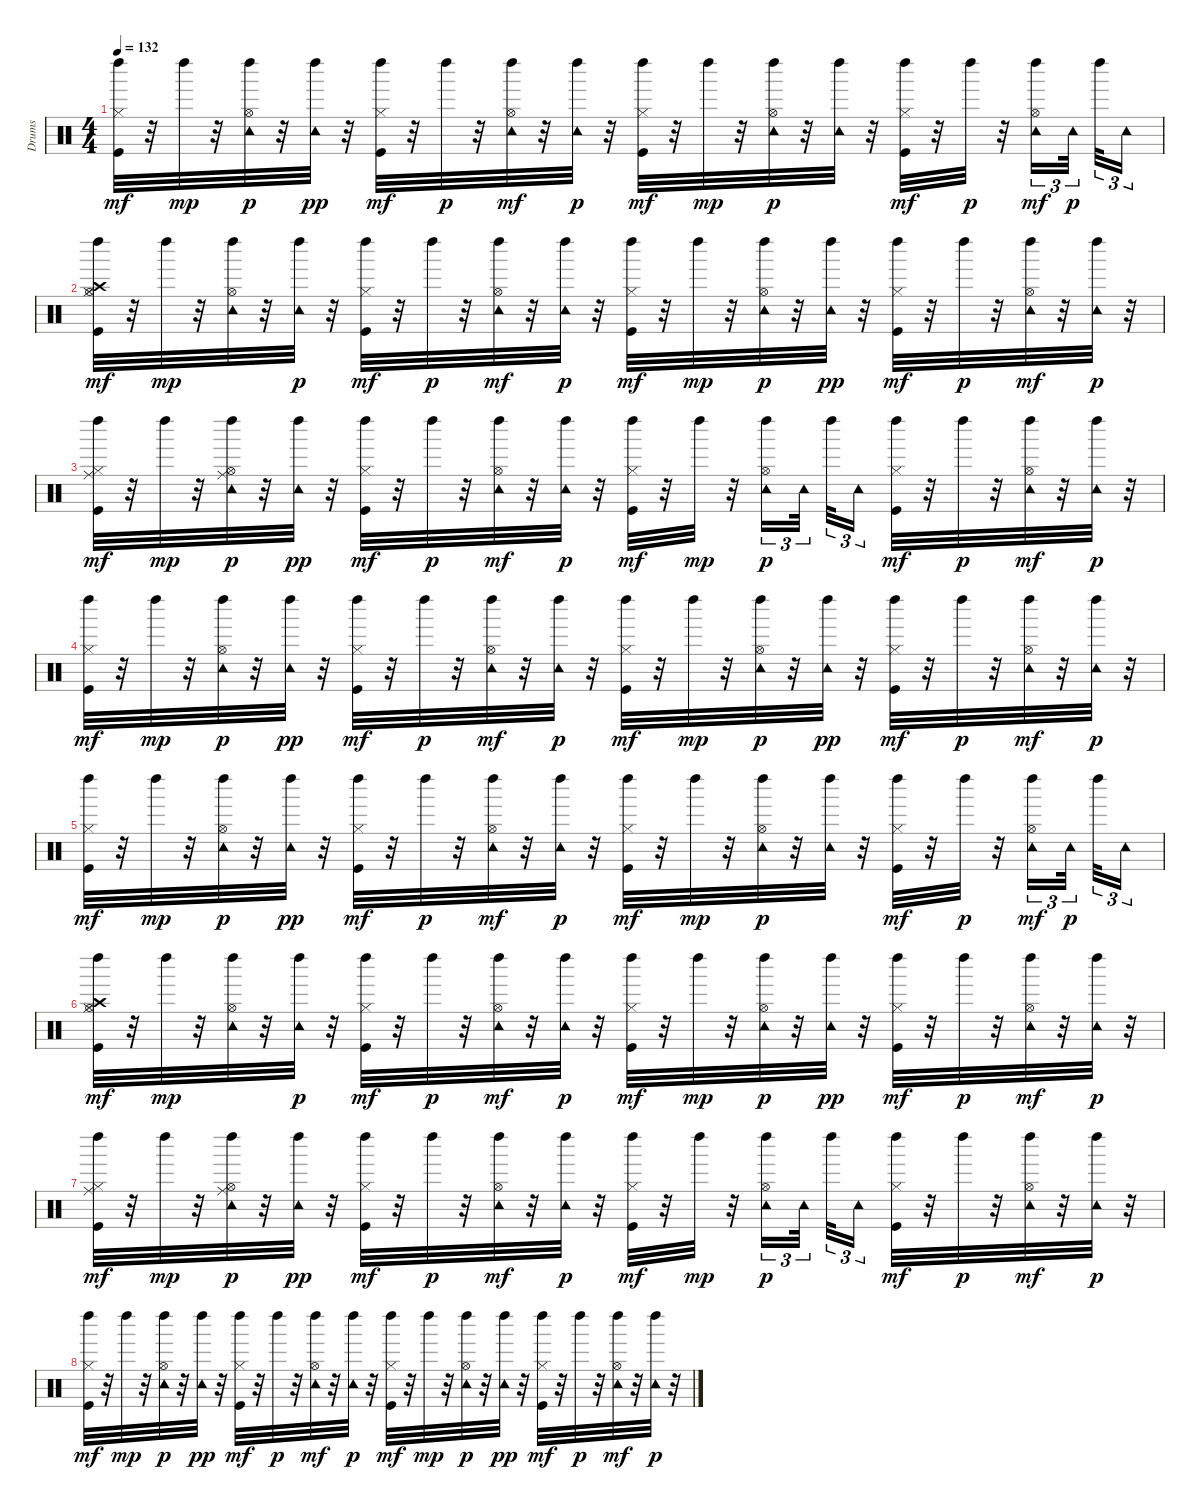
\track ("Drums" "Drums") {instrument percussion}
\staff {score}
\articulation defaults
\ts (4 4)
\tempo 132
\clef neutral
\ks c
("Kick (hit)" "Hi-Hat (closed)" "Left Maraca (hit)").32{dy mf} r.32 "Left Maraca (hit)".32{dy mp} r.32 ("Hi-Hat (open)" "Tambourine (hit)" "Left Maraca (hit)").32{dy p} r.32 ("Tambourine (hit)" "Left Maraca (hit)").32{dy pp} r.32 ("Kick (hit)" "Hi-Hat (closed)" "Left Maraca (hit)").32{dy mf} r.32 "Left Maraca (hit)".32{dy p} r.32 ("Hi-Hat (open)" "Tambourine (hit)" "Left Maraca (hit)").32{dy mf} r.32 ("Tambourine (hit)" "Left Maraca (hit)").32{dy p} r.32 ("Kick (hit)" "Hi-Hat (closed)" "Left Maraca (hit)").32{dy mf} r.32 "Left Maraca (hit)".32{dy mp} r.32 ("Hi-Hat (open)" "Tambourine (hit)" "Left Maraca (hit)").32{dy p} r.32 ("Tambourine (hit)" "Left Maraca (hit)").32 r.32 ("Kick (hit)" "Hi-Hat (closed)" "Left Maraca (hit)").32{dy mf} r.32 "Left Maraca (hit)".32{dy p} r.32 ("Hi-Hat (open)" "Tambourine (hit)" "Left Maraca (hit)").16{tu (3 2) dy mf} "Tambourine (hit)".32{tu (3 2) dy p beam splitsecondary} "Left Maraca (hit)".32{tu (3 2)} "Tambourine (hit)".16{tu (3 2)} |
("Kick (hit)" "Hi-Hat (closed)" "Hi-Hat (open)" "Crash high (hit)" "Left Maraca (hit)").32{dy mf} r.32 "Left Maraca (hit)".32{dy mp} r.32 ("Hi-Hat (open)" "Tambourine (hit)" "Left Maraca (hit)").32 r.32 ("Tambourine (hit)" "Left Maraca (hit)").32{dy p} r.32 ("Kick (hit)" "Hi-Hat (closed)" "Left Maraca (hit)").32{dy mf} r.32 "Left Maraca (hit)".32{dy p} r.32 ("Hi-Hat (open)" "Tambourine (hit)" "Left Maraca (hit)").32{dy mf} r.32 ("Tambourine (hit)" "Left Maraca (hit)").32{dy p} r.32 ("Kick (hit)" "Hi-Hat (closed)" "Left Maraca (hit)").32{dy mf} r.32 "Left Maraca (hit)".32{dy mp} r.32 ("Hi-Hat (open)" "Tambourine (hit)" "Left Maraca (hit)").32{dy p} r.32 ("Tambourine (hit)" "Left Maraca (hit)").32{dy pp} r.32 ("Kick (hit)" "Hi-Hat (closed)" "Left Maraca (hit)").32{dy mf} r.32 "Left Maraca (hit)".32{dy p} r.32 ("Hi-Hat (open)" "Tambourine (hit)" "Left Maraca (hit)").32{dy mf} r.32 ("Tambourine (hit)" "Left Maraca (hit)").32{dy p} r.32 |
("Kick (hit)" "Hi-Hat (closed)" "Ride (middle)" "Left Maraca (hit)").32{dy mf} r.32 "Left Maraca (hit)".32{dy mp} r.32 ("Hi-Hat (open)" "Ride (middle)" "Tambourine (hit)" "Left Maraca (hit)").32{dy p} r.32 ("Tambourine (hit)" "Left Maraca (hit)").32{dy pp} r.32 ("Kick (hit)" "Hi-Hat (closed)" "Left Maraca (hit)").32{dy mf} r.32 "Left Maraca (hit)".32{dy p} r.32 ("Hi-Hat (open)" "Tambourine (hit)" "Left Maraca (hit)").32{dy mf} r.32 ("Tambourine (hit)" "Left Maraca (hit)").32{dy p} r.32 ("Kick (hit)" "Hi-Hat (closed)" "Left Maraca (hit)").32{dy mf} r.32 "Left Maraca (hit)".32{dy mp} r.32 ("Hi-Hat (open)" "Tambourine (hit)" "Left Maraca (hit)").16{tu (3 2) dy p} "Tambourine (hit)".32{tu (3 2) beam splitsecondary} "Left Maraca (hit)".32{tu (3 2)} "Tambourine (hit)".16{tu (3 2)} ("Kick (hit)" "Hi-Hat (closed)" "Left Maraca (hit)").32{dy mf} r.32 "Left Maraca (hit)".32{dy p} r.32 ("Hi-Hat (open)" "Tambourine (hit)" "Left Maraca (hit)").32{dy mf} r.32 ("Tambourine (hit)" "Left Maraca (hit)").32{dy p} r.32 |
("Kick (hit)" "Hi-Hat (closed)" "Left Maraca (hit)").32{dy mf} r.32 "Left Maraca (hit)".32{dy mp} r.32 ("Hi-Hat (open)" "Tambourine (hit)" "Left Maraca (hit)").32{dy p} r.32 ("Tambourine (hit)" "Left Maraca (hit)").32{dy pp} r.32 ("Kick (hit)" "Hi-Hat (closed)" "Left Maraca (hit)").32{dy mf} r.32 "Left Maraca (hit)".32{dy p} r.32 ("Hi-Hat (open)" "Tambourine (hit)" "Left Maraca (hit)").32{dy mf} r.32 ("Tambourine (hit)" "Left Maraca (hit)").32{dy p} r.32 ("Kick (hit)" "Hi-Hat (closed)" "Left Maraca (hit)").32{dy mf} r.32 "Left Maraca (hit)".32{dy mp} r.32 ("Hi-Hat (open)" "Tambourine (hit)" "Left Maraca (hit)").32{dy p} r.32 ("Tambourine (hit)" "Left Maraca (hit)").32{dy pp} r.32 ("Kick (hit)" "Hi-Hat (closed)" "Left Maraca (hit)").32{dy mf} r.32 "Left Maraca (hit)".32{dy p} r.32 ("Hi-Hat (open)" "Tambourine (hit)" "Left Maraca (hit)").32{dy mf} r.32 ("Tambourine (hit)" "Left Maraca (hit)").32{dy p} r.32 |
("Kick (hit)" "Hi-Hat (closed)" "Left Maraca (hit)").32{dy mf} r.32 "Left Maraca (hit)".32{dy mp} r.32 ("Hi-Hat (open)" "Tambourine (hit)" "Left Maraca (hit)").32{dy p} r.32 ("Tambourine (hit)" "Left Maraca (hit)").32{dy pp} r.32 ("Kick (hit)" "Hi-Hat (closed)" "Left Maraca (hit)").32{dy mf} r.32 "Left Maraca (hit)".32{dy p} r.32 ("Hi-Hat (open)" "Tambourine (hit)" "Left Maraca (hit)").32{dy mf} r.32 ("Tambourine (hit)" "Left Maraca (hit)").32{dy p} r.32 ("Kick (hit)" "Hi-Hat (closed)" "Left Maraca (hit)").32{dy mf} r.32 "Left Maraca (hit)".32{dy mp} r.32 ("Hi-Hat (open)" "Tambourine (hit)" "Left Maraca (hit)").32{dy p} r.32 ("Tambourine (hit)" "Left Maraca (hit)").32 r.32 ("Kick (hit)" "Hi-Hat (closed)" "Left Maraca (hit)").32{dy mf} r.32 "Left Maraca (hit)".32{dy p} r.32 ("Hi-Hat (open)" "Tambourine (hit)" "Left Maraca (hit)").16{tu (3 2) dy mf} "Tambourine (hit)".32{tu (3 2) dy p beam splitsecondary} "Left Maraca (hit)".32{tu (3 2)} "Tambourine (hit)".16{tu (3 2)} |
("Kick (hit)" "Hi-Hat (closed)" "Hi-Hat (open)" "Crash high (hit)" "Left Maraca (hit)").32{dy mf} r.32 "Left Maraca (hit)".32{dy mp} r.32 ("Hi-Hat (open)" "Tambourine (hit)" "Left Maraca (hit)").32 r.32 ("Tambourine (hit)" "Left Maraca (hit)").32{dy p} r.32 ("Kick (hit)" "Hi-Hat (closed)" "Left Maraca (hit)").32{dy mf} r.32 "Left Maraca (hit)".32{dy p} r.32 ("Hi-Hat (open)" "Tambourine (hit)" "Left Maraca (hit)").32{dy mf} r.32 ("Tambourine (hit)" "Left Maraca (hit)").32{dy p} r.32 ("Kick (hit)" "Hi-Hat (closed)" "Left Maraca (hit)").32{dy mf} r.32 "Left Maraca (hit)".32{dy mp} r.32 ("Hi-Hat (open)" "Tambourine (hit)" "Left Maraca (hit)").32{dy p} r.32 ("Tambourine (hit)" "Left Maraca (hit)").32{dy pp} r.32 ("Kick (hit)" "Hi-Hat (closed)" "Left Maraca (hit)").32{dy mf} r.32 "Left Maraca (hit)".32{dy p} r.32 ("Hi-Hat (open)" "Tambourine (hit)" "Left Maraca (hit)").32{dy mf} r.32 ("Tambourine (hit)" "Left Maraca (hit)").32{dy p} r.32 |
("Kick (hit)" "Hi-Hat (closed)" "Ride (middle)" "Left Maraca (hit)").32{dy mf} r.32 "Left Maraca (hit)".32{dy mp} r.32 ("Hi-Hat (open)" "Ride (middle)" "Tambourine (hit)" "Left Maraca (hit)").32{dy p} r.32 ("Tambourine (hit)" "Left Maraca (hit)").32{dy pp} r.32 ("Kick (hit)" "Hi-Hat (closed)" "Left Maraca (hit)").32{dy mf} r.32 "Left Maraca (hit)".32{dy p} r.32 ("Hi-Hat (open)" "Tambourine (hit)" "Left Maraca (hit)").32{dy mf} r.32 ("Tambourine (hit)" "Left Maraca (hit)").32{dy p} r.32 ("Kick (hit)" "Hi-Hat (closed)" "Left Maraca (hit)").32{dy mf} r.32 "Left Maraca (hit)".32{dy mp} r.32 ("Hi-Hat (open)" "Tambourine (hit)" "Left Maraca (hit)").16{tu (3 2) dy p} "Tambourine (hit)".32{tu (3 2) beam splitsecondary} "Left Maraca (hit)".32{tu (3 2)} "Tambourine (hit)".16{tu (3 2)} ("Kick (hit)" "Hi-Hat (closed)" "Left Maraca (hit)").32{dy mf} r.32 "Left Maraca (hit)".32{dy p} r.32 ("Hi-Hat (open)" "Tambourine (hit)" "Left Maraca (hit)").32{dy mf} r.32 ("Tambourine (hit)" "Left Maraca (hit)").32{dy p} r.32 |
("Kick (hit)" "Hi-Hat (closed)" "Left Maraca (hit)").32{dy mf} r.32 "Left Maraca (hit)".32{dy mp} r.32 ("Hi-Hat (open)" "Tambourine (hit)" "Left Maraca (hit)").32{dy p} r.32 ("Tambourine (hit)" "Left Maraca (hit)").32{dy pp} r.32 ("Kick (hit)" "Hi-Hat (closed)" "Left Maraca (hit)").32{dy mf} r.32 "Left Maraca (hit)".32{dy p} r.32 ("Hi-Hat (open)" "Tambourine (hit)" "Left Maraca (hit)").32{dy mf} r.32 ("Tambourine (hit)" "Left Maraca (hit)").32{dy p} r.32 ("Kick (hit)" "Hi-Hat (closed)" "Left Maraca (hit)").32{dy mf} r.32 "Left Maraca (hit)".32{dy mp} r.32 ("Hi-Hat (open)" "Tambourine (hit)" "Left Maraca (hit)").32{dy p} r.32 ("Tambourine (hit)" "Left Maraca (hit)").32{dy pp} r.32 ("Kick (hit)" "Hi-Hat (closed)" "Left Maraca (hit)").32{dy mf} r.32 "Left Maraca (hit)".32{dy p} r.32 ("Hi-Hat (open)" "Tambourine (hit)" "Left Maraca (hit)").32{dy mf} r.32 ("Tambourine (hit)" "Left Maraca (hit)").32{dy p} r.32
